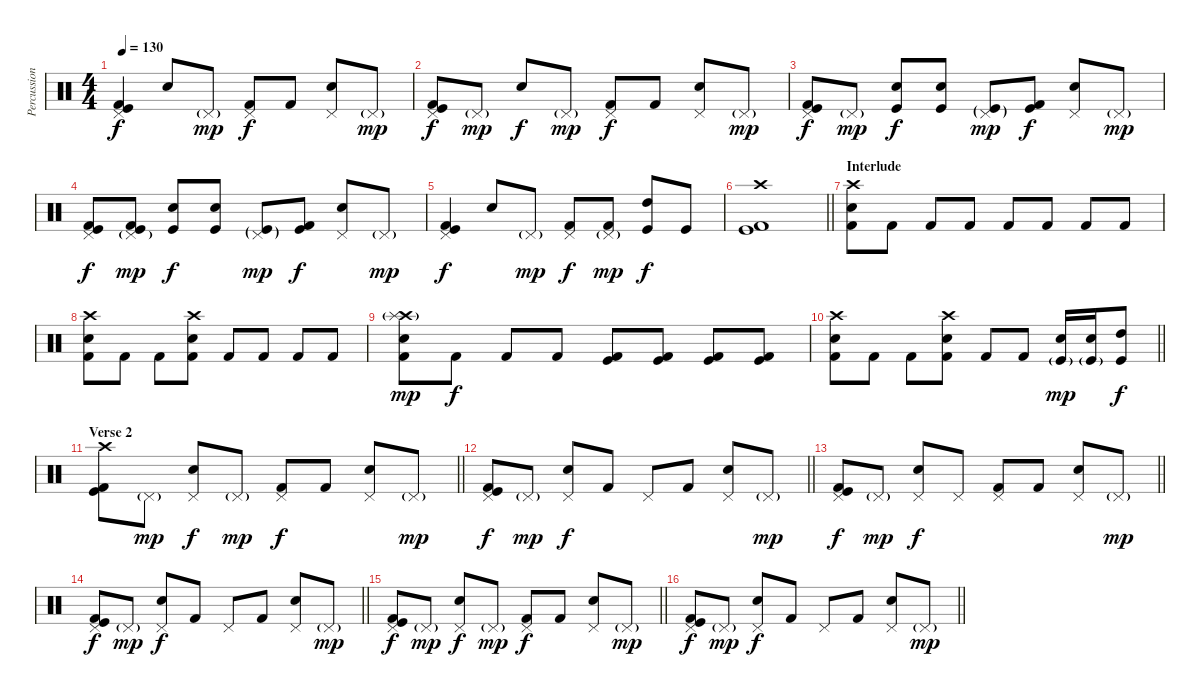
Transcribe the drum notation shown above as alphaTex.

\track ("Percussion(Wendell Garcia)" "Percussion") {instrument percussion}
\staff {score}
\articulation defaults
\ts (4 4)
\tempo 130
\clef neutral
\ks c
("Pedal Hi-Hat (hit)" "Kick (hit) 2" "Kick (hit)").4{dy f} "Electric Snare (hit)".8 "Pedal Hi-Hat (hit)"{g}.8{dy mp} ("Kick (hit) 2" "Pedal Hi-Hat (hit)").8{dy f} "Kick (hit) 2".8 ("Electric Snare (hit)" "Pedal Hi-Hat (hit)").8 "Pedal Hi-Hat (hit)"{g}.8{dy mp} |
("Pedal Hi-Hat (hit)" "Kick (hit) 2" "Kick (hit)").8{dy f} "Pedal Hi-Hat (hit)"{g}.8{dy mp} "Electric Snare (hit)".8{dy f} "Pedal Hi-Hat (hit)"{g}.8{dy mp} ("Kick (hit) 2" "Pedal Hi-Hat (hit)").8{dy f} "Kick (hit) 2".8 ("Electric Snare (hit)" "Pedal Hi-Hat (hit)").8 "Pedal Hi-Hat (hit)"{g}.8{dy mp} |
("Pedal Hi-Hat (hit)" "Kick (hit) 2" "Kick (hit)").8{dy f} "Pedal Hi-Hat (hit)"{g}.8{dy mp} ("Electric Snare (hit)" "Kick (hit)").8{dy f} ("Electric Snare (hit)" "Kick (hit)").8 ("Kick (hit)"{g} "Pedal Hi-Hat (hit)"{g}).8{dy mp} ("Kick (hit) 2" "Kick (hit)").8{dy f} ("Electric Snare (hit)" "Pedal Hi-Hat (hit)").8 "Pedal Hi-Hat (hit)"{g}.8{dy mp} |
("Pedal Hi-Hat (hit)" "Kick (hit) 2" "Kick (hit)").8{dy f} ("Pedal Hi-Hat (hit)"{g} "Kick (hit) 2" "Kick (hit)").8{dy mp} ("Electric Snare (hit)" "Kick (hit)").8{dy f} ("Electric Snare (hit)" "Kick (hit)").8 ("Kick (hit)"{g} "Pedal Hi-Hat (hit)"{g}).8{dy mp} ("Kick (hit) 2" "Kick (hit)").8{dy f} ("Electric Snare (hit)" "Pedal Hi-Hat (hit)").8 "Pedal Hi-Hat (hit)"{g}.8{dy mp} |
("Pedal Hi-Hat (hit)" "Kick (hit) 2" "Kick (hit)").4{dy f} "Electric Snare (hit)".8 "Pedal Hi-Hat (hit)"{g}.8{dy mp} ("Kick (hit) 2" "Pedal Hi-Hat (hit)").8{dy f} ("Kick (hit) 2" "Pedal Hi-Hat (hit)"{g}).8{dy mp} ("High Tom (hit)" "Kick (hit)").8{dy f} "Kick (hit)".8 |
\barLineRight lightlight
("Crash high (hit)" "Kick (hit) 2" "Kick (hit)").1 |
\section ("" "Interlude")
("Crash high (hit)" "Electric Snare (hit)" "Kick (hit) 2").8 "Kick (hit) 2".8 "Kick (hit) 2".8 "Kick (hit) 2".8 "Kick (hit) 2".8 "Kick (hit) 2".8 "Kick (hit) 2".8 "Kick (hit) 2".8 |
("Crash high (hit)" "Electric Snare (hit)" "Kick (hit) 2").8 "Kick (hit) 2".8 "Kick (hit) 2".8 ("Crash high (hit)" "Electric Snare (hit)" "Kick (hit) 2").8 "Kick (hit) 2".8 "Kick (hit) 2".8 "Kick (hit) 2".8 "Kick (hit) 2".8 |
("Crash high (hit)"{g} "Splash (hit)"{g} "Electric Snare (hit)" "Kick (hit) 2").8{dy mp} "Kick (hit) 2".8{dy f} "Kick (hit) 2".8 "Kick (hit) 2".8 ("Kick (hit) 2" "Kick (hit)").8 ("Kick (hit) 2" "Kick (hit)").8 ("Kick (hit) 2" "Kick (hit)").8 ("Kick (hit) 2" "Kick (hit)").8 |
\barLineRight lightlight
("Crash high (hit)" "Electric Snare (hit)" "Kick (hit) 2").8 "Kick (hit) 2".8 "Kick (hit) 2".8 ("Crash high (hit)" "Electric Snare (hit)" "Kick (hit) 2").8 "Kick (hit) 2".8 "Kick (hit) 2".8 ("Electric Snare (hit)" "Kick (hit)"{g}).16{dy mp} ("Electric Snare (hit)" "Kick (hit)"{g}).16 ("High Tom (hit)" "Kick (hit)").8{dy f} |
\section ("" "Verse 2")
\barLineRight lightlight
("Crash high (hit)" "Kick (hit)" "Kick (hit) 2").8 "Pedal Hi-Hat (hit)"{g}.8{dy mp} ("Pedal Hi-Hat (hit)" "Electric Snare (hit)").8{dy f} "Pedal Hi-Hat (hit)"{g}.8{dy mp} ("Pedal Hi-Hat (hit)" "Kick (hit) 2").8{dy f} "Kick (hit) 2".8 ("Pedal Hi-Hat (hit)" "Electric Snare (hit)").8 "Pedal Hi-Hat (hit)"{g}.8{dy mp} |
\barLineRight lightlight
("Pedal Hi-Hat (hit)" "Kick (hit)" "Kick (hit) 2").8{dy f} "Pedal Hi-Hat (hit)"{g}.8{dy mp} ("Pedal Hi-Hat (hit)" "Electric Snare (hit)").8{dy f} "Kick (hit) 2".8 "Pedal Hi-Hat (hit)".8 "Kick (hit) 2".8 ("Pedal Hi-Hat (hit)" "Electric Snare (hit)").8 "Pedal Hi-Hat (hit)"{g}.8{dy mp} |
\barLineRight lightlight
("Pedal Hi-Hat (hit)" "Kick (hit)" "Kick (hit) 2").8{dy f} "Pedal Hi-Hat (hit)"{g}.8{dy mp} ("Pedal Hi-Hat (hit)" "Electric Snare (hit)").8{dy f} "Pedal Hi-Hat (hit)".8 ("Pedal Hi-Hat (hit)" "Kick (hit) 2").8 "Kick (hit) 2".8 ("Pedal Hi-Hat (hit)" "Electric Snare (hit)").8 "Pedal Hi-Hat (hit)"{g}.8{dy mp} |
\barLineRight lightlight
("Pedal Hi-Hat (hit)" "Kick (hit)" "Kick (hit) 2").8{dy f} "Pedal Hi-Hat (hit)"{g}.8{dy mp} ("Pedal Hi-Hat (hit)" "Electric Snare (hit)").8{dy f} "Kick (hit) 2".8 "Pedal Hi-Hat (hit)".8 "Kick (hit) 2".8 ("Pedal Hi-Hat (hit)" "Electric Snare (hit)").8 "Pedal Hi-Hat (hit)"{g}.8{dy mp} |
\barLineRight lightlight
("Pedal Hi-Hat (hit)" "Kick (hit)" "Kick (hit) 2").8{dy f} "Pedal Hi-Hat (hit)"{g}.8{dy mp} ("Pedal Hi-Hat (hit)" "Electric Snare (hit)").8{dy f} "Pedal Hi-Hat (hit)"{g}.8{dy mp} ("Pedal Hi-Hat (hit)" "Kick (hit) 2").8{dy f} "Kick (hit) 2".8 ("Pedal Hi-Hat (hit)" "Electric Snare (hit)").8 "Pedal Hi-Hat (hit)"{g}.8{dy mp} |
\barLineRight lightlight
("Pedal Hi-Hat (hit)" "Kick (hit)" "Kick (hit) 2").8{dy f} "Pedal Hi-Hat (hit)"{g}.8{dy mp} ("Pedal Hi-Hat (hit)" "Electric Snare (hit)").8{dy f} "Kick (hit) 2".8 "Pedal Hi-Hat (hit)".8 "Kick (hit) 2".8 ("Pedal Hi-Hat (hit)" "Electric Snare (hit)").8 "Pedal Hi-Hat (hit)"{g}.8{dy mp}
